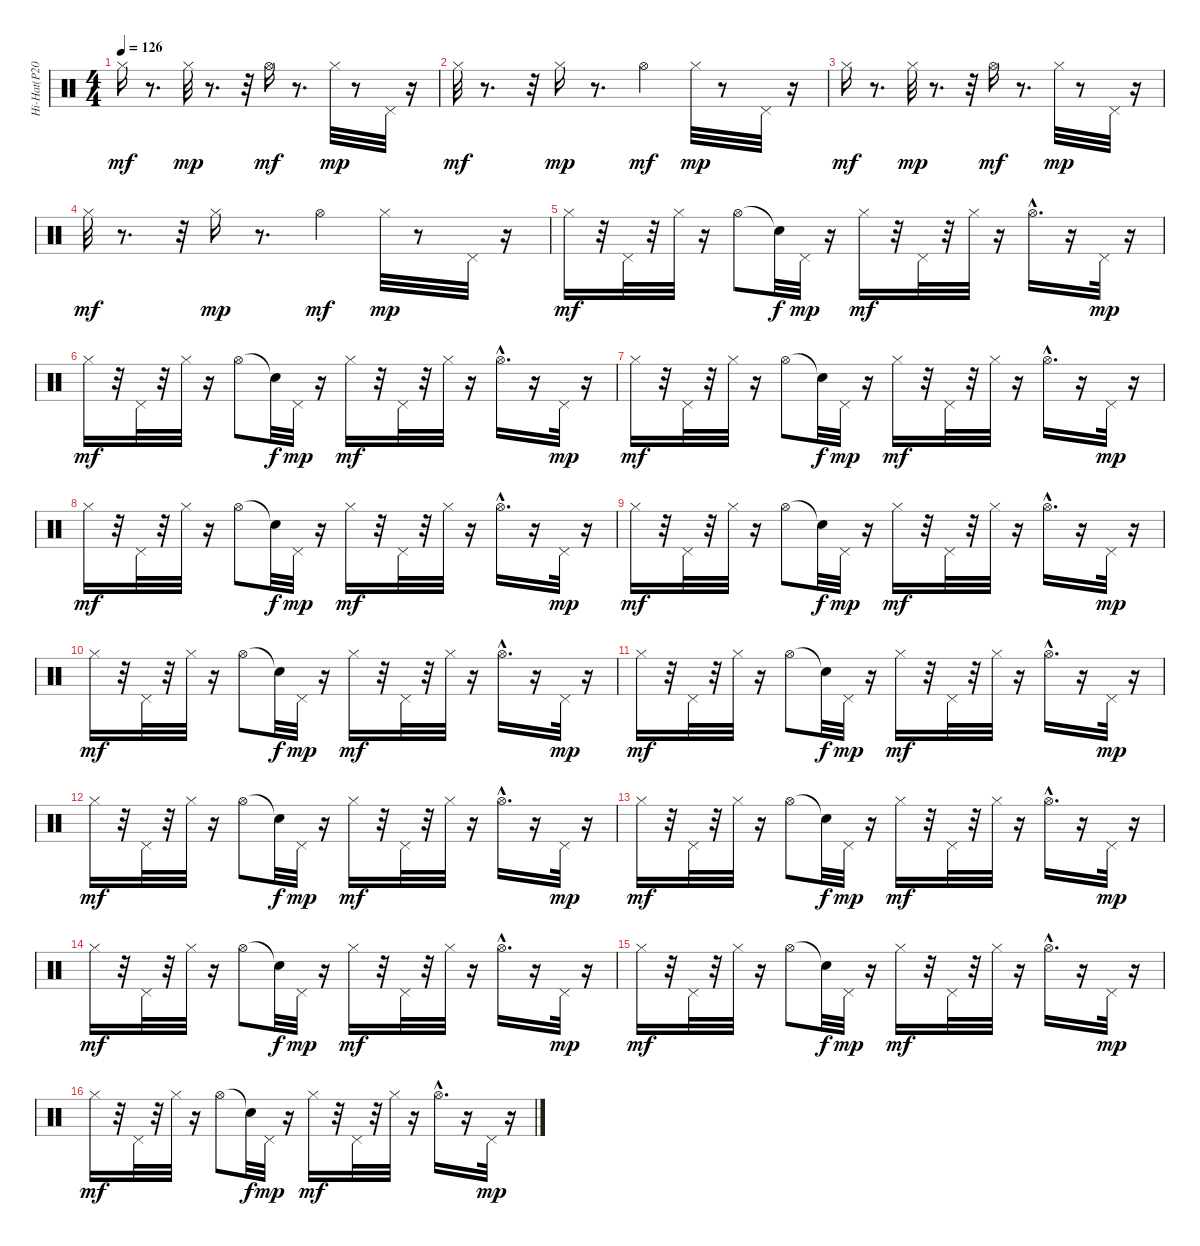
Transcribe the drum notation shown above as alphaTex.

\track ("Hi-Hat(P201)" "Hi-Hat(P20") {instrument percussion}
\staff {score}
\articulation defaults
\ts (4 4)
\tempo 126
\clef neutral
\ks c "Hi-Hat (closed)".16{dy mf}
r.8{d} "Hi-Hat (closed)".32{dy mp} r.8{d} r.32 "Hi-Hat (open)".16{dy mf} r.8{d} "Hi-Hat (closed)".32{dy mp} r.8 "Pedal Hi-Hat (hit)".32 r.16 |
"Hi-Hat (closed)".32{dy mf} r.8{d} r.32 "Hi-Hat (closed)".16{dy mp} r.8{d} "Hi-Hat (open)".4{dy mf} "Hi-Hat (closed)".32{dy mp} r.8 "Pedal Hi-Hat (hit)".32 r.16 |
"Hi-Hat (closed)".16{dy mf} r.8{d} "Hi-Hat (closed)".32{dy mp} r.8{d} r.32 "Hi-Hat (open)".16{dy mf} r.8{d} "Hi-Hat (closed)".32{dy mp} r.8 "Pedal Hi-Hat (hit)".32 r.16 |
"Hi-Hat (closed)".32{dy mf} r.8{d} r.32 "Hi-Hat (closed)".16{dy mp} r.8{d} "Hi-Hat (open)".4{dy mf} "Hi-Hat (closed)".32{dy mp} r.8 "Pedal Hi-Hat (hit)".32 r.16 |
"Hi-Hat (closed)".16{dy mf} r.32 "Pedal Hi-Hat (hit)".32 r.32 "Hi-Hat (closed)".32 r.16 "Hi-Hat (open)".8 "Snare (hit)"{t}.32{dy f} "Pedal Hi-Hat (hit)".32{dy mp} r.16 "Hi-Hat (closed)".16{dy mf} r.32 "Pedal Hi-Hat (hit)".32 r.32 "Hi-Hat (closed)".32 r.16 "Hi-Hat (open)"{hac}.16{d} r.16 "Pedal Hi-Hat (hit)".32{dy mp} r.16 |
"Hi-Hat (closed)".16{dy mf} r.32 "Pedal Hi-Hat (hit)".32 r.32 "Hi-Hat (closed)".32 r.16 "Hi-Hat (open)".8 "Snare (hit)"{t}.32{dy f} "Pedal Hi-Hat (hit)".32{dy mp} r.16 "Hi-Hat (closed)".16{dy mf} r.32 "Pedal Hi-Hat (hit)".32 r.32 "Hi-Hat (closed)".32 r.16 "Hi-Hat (open)"{hac}.16{d} r.16 "Pedal Hi-Hat (hit)".32{dy mp} r.16 |
"Hi-Hat (closed)".16{dy mf} r.32 "Pedal Hi-Hat (hit)".32 r.32 "Hi-Hat (closed)".32 r.16 "Hi-Hat (open)".8 "Snare (hit)"{t}.32{dy f} "Pedal Hi-Hat (hit)".32{dy mp} r.16 "Hi-Hat (closed)".16{dy mf} r.32 "Pedal Hi-Hat (hit)".32 r.32 "Hi-Hat (closed)".32 r.16 "Hi-Hat (open)"{hac}.16{d} r.16 "Pedal Hi-Hat (hit)".32{dy mp} r.16 |
"Hi-Hat (closed)".16{dy mf} r.32 "Pedal Hi-Hat (hit)".32 r.32 "Hi-Hat (closed)".32 r.16 "Hi-Hat (open)".8 "Snare (hit)"{t}.32{dy f} "Pedal Hi-Hat (hit)".32{dy mp} r.16 "Hi-Hat (closed)".16{dy mf} r.32 "Pedal Hi-Hat (hit)".32 r.32 "Hi-Hat (closed)".32 r.16 "Hi-Hat (open)"{hac}.16{d} r.16 "Pedal Hi-Hat (hit)".32{dy mp} r.16 |
"Hi-Hat (closed)".16{dy mf} r.32 "Pedal Hi-Hat (hit)".32 r.32 "Hi-Hat (closed)".32 r.16 "Hi-Hat (open)".8 "Snare (hit)"{t}.32{dy f} "Pedal Hi-Hat (hit)".32{dy mp} r.16 "Hi-Hat (closed)".16{dy mf} r.32 "Pedal Hi-Hat (hit)".32 r.32 "Hi-Hat (closed)".32 r.16 "Hi-Hat (open)"{hac}.16{d} r.16 "Pedal Hi-Hat (hit)".32{dy mp} r.16 |
"Hi-Hat (closed)".16{dy mf} r.32 "Pedal Hi-Hat (hit)".32 r.32 "Hi-Hat (closed)".32 r.16 "Hi-Hat (open)".8 "Snare (hit)"{t}.32{dy f} "Pedal Hi-Hat (hit)".32{dy mp} r.16 "Hi-Hat (closed)".16{dy mf} r.32 "Pedal Hi-Hat (hit)".32 r.32 "Hi-Hat (closed)".32 r.16 "Hi-Hat (open)"{hac}.16{d} r.16 "Pedal Hi-Hat (hit)".32{dy mp} r.16 |
"Hi-Hat (closed)".16{dy mf} r.32 "Pedal Hi-Hat (hit)".32 r.32 "Hi-Hat (closed)".32 r.16 "Hi-Hat (open)".8 "Snare (hit)"{t}.32{dy f} "Pedal Hi-Hat (hit)".32{dy mp} r.16 "Hi-Hat (closed)".16{dy mf} r.32 "Pedal Hi-Hat (hit)".32 r.32 "Hi-Hat (closed)".32 r.16 "Hi-Hat (open)"{hac}.16{d} r.16 "Pedal Hi-Hat (hit)".32{dy mp} r.16 |
"Hi-Hat (closed)".16{dy mf} r.32 "Pedal Hi-Hat (hit)".32 r.32 "Hi-Hat (closed)".32 r.16 "Hi-Hat (open)".8 "Snare (hit)"{t}.32{dy f} "Pedal Hi-Hat (hit)".32{dy mp} r.16 "Hi-Hat (closed)".16{dy mf} r.32 "Pedal Hi-Hat (hit)".32 r.32 "Hi-Hat (closed)".32 r.16 "Hi-Hat (open)"{hac}.16{d} r.16 "Pedal Hi-Hat (hit)".32{dy mp} r.16 |
"Hi-Hat (closed)".16{dy mf} r.32 "Pedal Hi-Hat (hit)".32 r.32 "Hi-Hat (closed)".32 r.16 "Hi-Hat (open)".8 "Snare (hit)"{t}.32{dy f} "Pedal Hi-Hat (hit)".32{dy mp} r.16 "Hi-Hat (closed)".16{dy mf} r.32 "Pedal Hi-Hat (hit)".32 r.32 "Hi-Hat (closed)".32 r.16 "Hi-Hat (open)"{hac}.16{d} r.16 "Pedal Hi-Hat (hit)".32{dy mp} r.16 |
"Hi-Hat (closed)".16{dy mf} r.32 "Pedal Hi-Hat (hit)".32 r.32 "Hi-Hat (closed)".32 r.16 "Hi-Hat (open)".8 "Snare (hit)"{t}.32{dy f} "Pedal Hi-Hat (hit)".32{dy mp} r.16 "Hi-Hat (closed)".16{dy mf} r.32 "Pedal Hi-Hat (hit)".32 r.32 "Hi-Hat (closed)".32 r.16 "Hi-Hat (open)"{hac}.16{d} r.16 "Pedal Hi-Hat (hit)".32{dy mp} r.16 |
"Hi-Hat (closed)".16{dy mf} r.32 "Pedal Hi-Hat (hit)".32 r.32 "Hi-Hat (closed)".32 r.16 "Hi-Hat (open)".8 "Snare (hit)"{t}.32{dy f} "Pedal Hi-Hat (hit)".32{dy mp} r.16 "Hi-Hat (closed)".16{dy mf} r.32 "Pedal Hi-Hat (hit)".32 r.32 "Hi-Hat (closed)".32 r.16 "Hi-Hat (open)"{hac}.16{d} r.16 "Pedal Hi-Hat (hit)".32{dy mp} r.16 |
"Hi-Hat (closed)".16{dy mf} r.32 "Pedal Hi-Hat (hit)".32 r.32 "Hi-Hat (closed)".32 r.16 "Hi-Hat (open)".8 "Snare (hit)"{t}.32{dy f} "Pedal Hi-Hat (hit)".32{dy mp} r.16 "Hi-Hat (closed)".16{dy mf} r.32 "Pedal Hi-Hat (hit)".32 r.32 "Hi-Hat (closed)".32 r.16 "Hi-Hat (open)"{hac}.16{d} r.16 "Pedal Hi-Hat (hit)".32{dy mp} r.16
